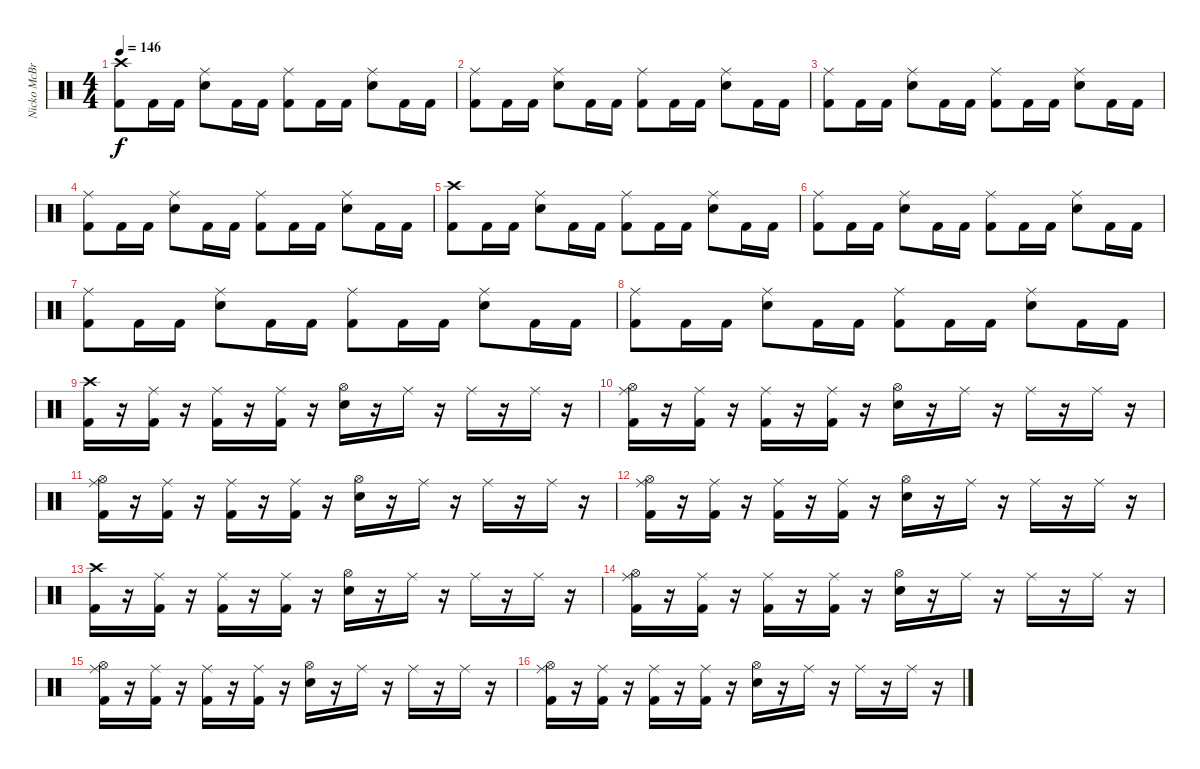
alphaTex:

\track ("Nicko McBrain" "Nicko McBr") {instrument percussion}
\staff {score}
\articulation defaults
\ts (4 4)
\tempo 146
\clef neutral
\ks c
("Crash high (hit)" "Kick (hit) 2").8{dy f} "Kick (hit) 2".16 "Kick (hit) 2".16 ("Ride (middle)" "Snare (hit) 2").8 "Kick (hit) 2".16 "Kick (hit) 2".16 ("Ride (middle)" "Kick (hit) 2").8 "Kick (hit) 2".16 "Kick (hit) 2".16 ("Ride (middle)" "Snare (hit) 2").8 "Kick (hit) 2".16 "Kick (hit) 2".16 |
("Ride (middle)" "Kick (hit) 2").8 "Kick (hit) 2".16 "Kick (hit) 2".16 ("Ride (middle)" "Snare (hit) 2").8 "Kick (hit) 2".16 "Kick (hit) 2".16 ("Ride (middle)" "Kick (hit) 2").8 "Kick (hit) 2".16 "Kick (hit) 2".16 ("Ride (middle)" "Snare (hit) 2").8 "Kick (hit) 2".16 "Kick (hit) 2".16 |
("Ride (middle)" "Kick (hit) 2").8 "Kick (hit) 2".16 "Kick (hit) 2".16 ("Ride (middle)" "Snare (hit) 2").8 "Kick (hit) 2".16 "Kick (hit) 2".16 ("Ride (middle)" "Kick (hit) 2").8 "Kick (hit) 2".16 "Kick (hit) 2".16 ("Ride (middle)" "Snare (hit) 2").8 "Kick (hit) 2".16 "Kick (hit) 2".16 |
("Ride (middle)" "Kick (hit) 2").8 "Kick (hit) 2".16 "Kick (hit) 2".16 ("Ride (middle)" "Snare (hit) 2").8 "Kick (hit) 2".16 "Kick (hit) 2".16 ("Ride (middle)" "Kick (hit) 2").8 "Kick (hit) 2".16 "Kick (hit) 2".16 ("Ride (middle)" "Snare (hit) 2").8 "Kick (hit) 2".16 "Kick (hit) 2".16 |
("Crash high (hit)" "Kick (hit) 2").8 "Kick (hit) 2".16 "Kick (hit) 2".16 ("Ride (middle)" "Snare (hit) 2").8 "Kick (hit) 2".16 "Kick (hit) 2".16 ("Ride (middle)" "Kick (hit) 2").8 "Kick (hit) 2".16 "Kick (hit) 2".16 ("Ride (middle)" "Snare (hit) 2").8 "Kick (hit) 2".16 "Kick (hit) 2".16 |
("Ride (middle)" "Kick (hit) 2").8 "Kick (hit) 2".16 "Kick (hit) 2".16 ("Ride (middle)" "Snare (hit) 2").8 "Kick (hit) 2".16 "Kick (hit) 2".16 ("Ride (middle)" "Kick (hit) 2").8 "Kick (hit) 2".16 "Kick (hit) 2".16 ("Ride (middle)" "Snare (hit) 2").8 "Kick (hit) 2".16 "Kick (hit) 2".16 |
("Ride (middle)" "Kick (hit) 2").8 "Kick (hit) 2".16 "Kick (hit) 2".16 ("Ride (middle)" "Snare (hit) 2").8 "Kick (hit) 2".16 "Kick (hit) 2".16 ("Ride (middle)" "Kick (hit) 2").8 "Kick (hit) 2".16 "Kick (hit) 2".16 ("Ride (middle)" "Snare (hit) 2").8 "Kick (hit) 2".16 "Kick (hit) 2".16 |
("Ride (middle)" "Kick (hit) 2").8 "Kick (hit) 2".16 "Kick (hit) 2".16 ("Ride (middle)" "Snare (hit) 2").8 "Kick (hit) 2".16 "Kick (hit) 2".16 ("Ride (middle)" "Kick (hit) 2").8 "Kick (hit) 2".16 "Kick (hit) 2".16 ("Ride (middle)" "Snare (hit) 2").8 "Kick (hit) 2".16 "Kick (hit) 2".16 |
("Crash high (hit)" "Kick (hit) 2").16 r.16 ("Ride (middle)" "Kick (hit) 2").16 r.16 ("Ride (middle)" "Kick (hit) 2").16 r.16 ("Ride (middle)" "Kick (hit) 2").16 r.16 ("Hi-Hat (open)" "Snare (hit) 2").16 r.16 "Ride (middle)".16 r.16 "Ride (middle)".16 r.16 "Ride (middle)".16 r.16 |
("Ride (middle)" "Hi-Hat (open)" "Kick (hit) 2").16 r.16 ("Ride (middle)" "Kick (hit) 2").16 r.16 ("Ride (middle)" "Kick (hit) 2").16 r.16 ("Ride (middle)" "Kick (hit) 2").16 r.16 ("Hi-Hat (open)" "Snare (hit) 2").16 r.16 "Ride (middle)".16 r.16 "Ride (middle)".16 r.16 "Ride (middle)".16 r.16 |
("Ride (middle)" "Hi-Hat (open)" "Kick (hit) 2").16 r.16 ("Ride (middle)" "Kick (hit) 2").16 r.16 ("Ride (middle)" "Kick (hit) 2").16 r.16 ("Ride (middle)" "Kick (hit) 2").16 r.16 ("Hi-Hat (open)" "Snare (hit) 2").16 r.16 "Ride (middle)".16 r.16 "Ride (middle)".16 r.16 "Ride (middle)".16 r.16 |
("Ride (middle)" "Hi-Hat (open)" "Kick (hit) 2").16 r.16 ("Ride (middle)" "Kick (hit) 2").16 r.16 ("Ride (middle)" "Kick (hit) 2").16 r.16 ("Ride (middle)" "Kick (hit) 2").16 r.16 ("Hi-Hat (open)" "Snare (hit) 2").16 r.16 "Ride (middle)".16 r.16 "Ride (middle)".16 r.16 "Ride (middle)".16 r.16 |
("Crash high (hit)" "Kick (hit) 2").16 r.16 ("Ride (middle)" "Kick (hit) 2").16 r.16 ("Ride (middle)" "Kick (hit) 2").16 r.16 ("Ride (middle)" "Kick (hit) 2").16 r.16 ("Hi-Hat (open)" "Snare (hit) 2").16 r.16 "Ride (middle)".16 r.16 "Ride (middle)".16 r.16 "Ride (middle)".16 r.16 |
("Ride (middle)" "Hi-Hat (open)" "Kick (hit) 2").16 r.16 ("Ride (middle)" "Kick (hit) 2").16 r.16 ("Ride (middle)" "Kick (hit) 2").16 r.16 ("Ride (middle)" "Kick (hit) 2").16 r.16 ("Hi-Hat (open)" "Snare (hit) 2").16 r.16 "Ride (middle)".16 r.16 "Ride (middle)".16 r.16 "Ride (middle)".16 r.16 |
("Ride (middle)" "Hi-Hat (open)" "Kick (hit) 2").16 r.16 ("Ride (middle)" "Kick (hit) 2").16 r.16 ("Ride (middle)" "Kick (hit) 2").16 r.16 ("Ride (middle)" "Kick (hit) 2").16 r.16 ("Hi-Hat (open)" "Snare (hit) 2").16 r.16 "Ride (middle)".16 r.16 "Ride (middle)".16 r.16 "Ride (middle)".16 r.16 |
("Ride (middle)" "Hi-Hat (open)" "Kick (hit) 2").16 r.16 ("Ride (middle)" "Kick (hit) 2").16 r.16 ("Ride (middle)" "Kick (hit) 2").16 r.16 ("Ride (middle)" "Kick (hit) 2").16 r.16 ("Hi-Hat (open)" "Snare (hit) 2").16 r.16 "Ride (middle)".16 r.16 "Ride (middle)".16 r.16 "Ride (middle)".16 r.16
